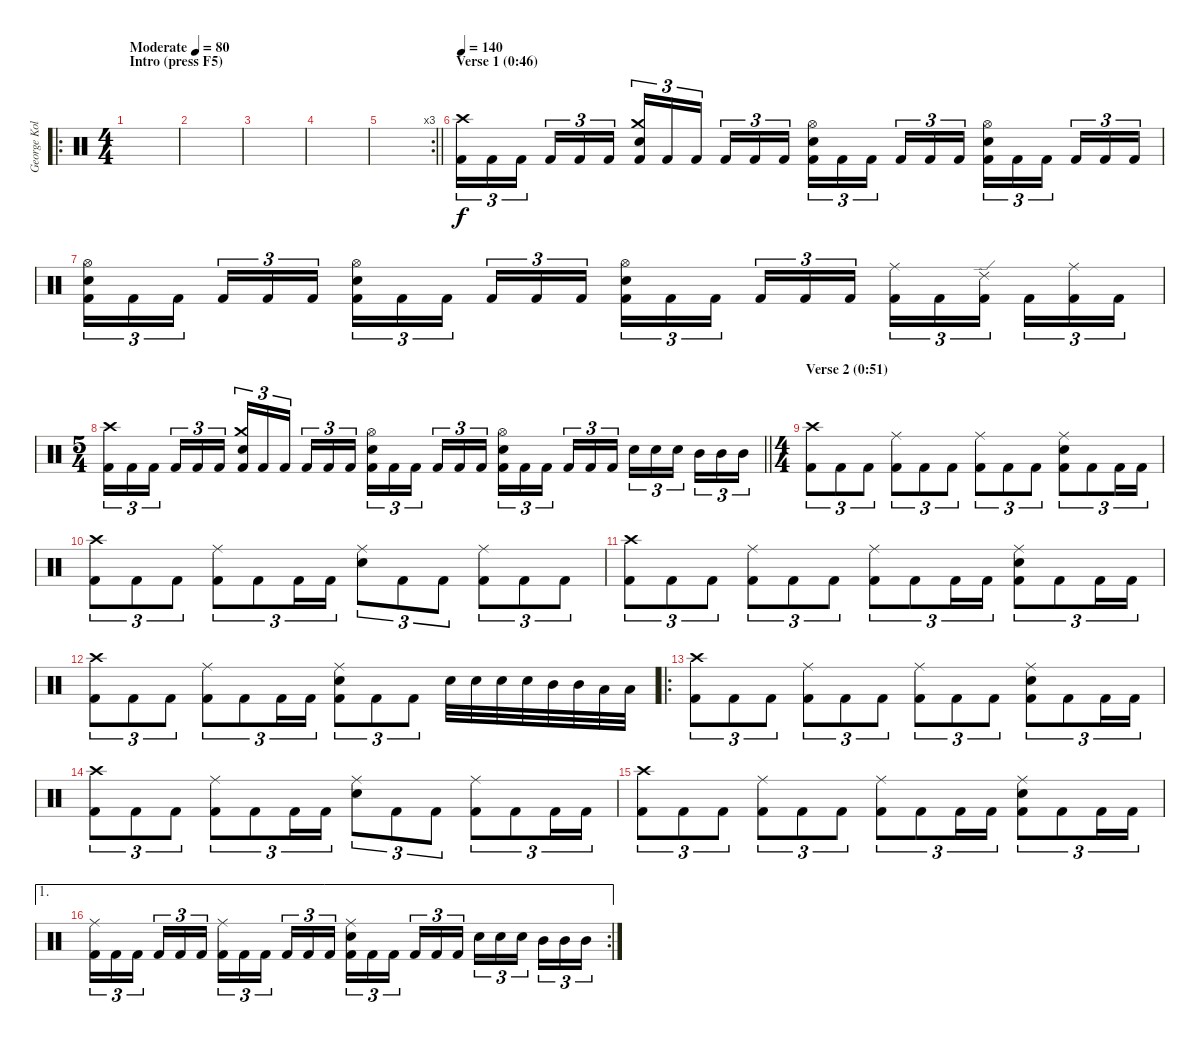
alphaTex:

\track ("George Kollias" "George Kol") {instrument percussion}
\staff {score}
\articulation defaults
\ro
\ts (4 4)
\section ("" "Intro (press F5)")
\tempo (80 "Moderate")
\clef neutral
\ks c
|
|
|
|
\rc 3
\barLineRight lightlight
|
\section ("" "Verse 1 (0:46)")
\tempo 140
("Crash high (hit)" "Kick (hit) 2").16{tu (3 2)} "Kick (hit) 2".16{tu (3 2)} "Kick (hit) 2".16{tu (3 2) beam splitsecondary} "Kick (hit) 2".16{tu (3 2)} "Kick (hit) 2".16{tu (3 2)} "Kick (hit) 2".16{tu (3 2)} ("Crash medium (hit)" "Electric Snare (hit)" "Kick (hit) 2").16{tu (3 2)} "Kick (hit) 2".16{tu (3 2)} "Kick (hit) 2".16{tu (3 2) beam splitsecondary} "Kick (hit) 2".16{tu (3 2)} "Kick (hit) 2".16{tu (3 2)} "Kick (hit) 2".16{tu (3 2)} ("Hi-Hat (open)" "Electric Snare (hit)" "Kick (hit) 2").16{tu (3 2)} "Kick (hit) 2".16{tu (3 2)} "Kick (hit) 2".16{tu (3 2) beam splitsecondary} "Kick (hit) 2".16{tu (3 2)} "Kick (hit) 2".16{tu (3 2)} "Kick (hit) 2".16{tu (3 2)} ("Hi-Hat (open)" "Electric Snare (hit)" "Kick (hit) 2").16{tu (3 2)} "Kick (hit) 2".16{tu (3 2)} "Kick (hit) 2".16{tu (3 2) beam splitsecondary} "Kick (hit) 2".16{tu (3 2)} "Kick (hit) 2".16{tu (3 2)} "Kick (hit) 2".16{tu (3 2)} |
("Hi-Hat (open)" "Electric Snare (hit)" "Kick (hit) 2").16{tu (3 2)} "Kick (hit) 2".16{tu (3 2)} "Kick (hit) 2".16{tu (3 2) beam splitsecondary} "Kick (hit) 2".16{tu (3 2)} "Kick (hit) 2".16{tu (3 2)} "Kick (hit) 2".16{tu (3 2)} ("Hi-Hat (open)" "Electric Snare (hit)" "Kick (hit) 2").16{tu (3 2)} "Kick (hit) 2".16{tu (3 2)} "Kick (hit) 2".16{tu (3 2) beam splitsecondary} "Kick (hit) 2".16{tu (3 2)} "Kick (hit) 2".16{tu (3 2)} "Kick (hit) 2".16{tu (3 2)} ("Hi-Hat (open)" "Electric Snare (hit)" "Kick (hit) 2").16{tu (3 2)} "Kick (hit) 2".16{tu (3 2)} "Kick (hit) 2".16{tu (3 2) beam splitsecondary} "Kick (hit) 2".16{tu (3 2)} "Kick (hit) 2".16{tu (3 2)} "Kick (hit) 2".16{tu (3 2)} ("Ride (middle)" "Kick (hit) 2").16{tu (3 2)} "Kick (hit) 2".16{tu (3 2)} ("Ride (edge) 2" "Kick (hit) 2").16{tu (3 2) beam splitsecondary} "Kick (hit) 2".16{tu (3 2)} ("Ride (middle)" "Kick (hit) 2").16{tu (3 2)} "Kick (hit) 2".16{tu (3 2)} |
\ts (5 4)
\barLineRight lightlight
("Crash high (hit)" "Kick (hit) 2").16{tu (3 2)} "Kick (hit) 2".16{tu (3 2)} "Kick (hit) 2".16{tu (3 2) beam splitsecondary} "Kick (hit) 2".16{tu (3 2)} "Kick (hit) 2".16{tu (3 2)} "Kick (hit) 2".16{tu (3 2)} ("Crash medium (hit)" "Electric Snare (hit)" "Kick (hit) 2").16{tu (3 2)} "Kick (hit) 2".16{tu (3 2)} "Kick (hit) 2".16{tu (3 2) beam splitsecondary} "Kick (hit) 2".16{tu (3 2)} "Kick (hit) 2".16{tu (3 2)} "Kick (hit) 2".16{tu (3 2)} ("Hi-Hat (open)" "Electric Snare (hit)" "Kick (hit) 2").16{tu (3 2)} "Kick (hit) 2".16{tu (3 2)} "Kick (hit) 2".16{tu (3 2) beam splitsecondary} "Kick (hit) 2".16{tu (3 2)} "Kick (hit) 2".16{tu (3 2)} "Kick (hit) 2".16{tu (3 2)} ("Hi-Hat (open)" "Electric Snare (hit)" "Kick (hit) 2").16{tu (3 2)} "Kick (hit) 2".16{tu (3 2)} "Kick (hit) 2".16{tu (3 2) beam splitsecondary} "Kick (hit) 2".16{tu (3 2)} "Kick (hit) 2".16{tu (3 2)} "Kick (hit) 2".16{tu (3 2)} "Electric Snare (hit)".16{tu (3 2)} "Electric Snare (hit)".16{tu (3 2)} "Electric Snare (hit)".16{tu (3 2) beam splitsecondary} "Mid Tom (hit)".16{tu (3 2)} "Mid Tom (hit)".16{tu (3 2)} "Mid Tom (hit)".16{tu (3 2)} |
\ts (4 4)
\section ("" "Verse 2 (0:51)")
("Crash high (hit)" "Kick (hit) 2").8{tu (3 2)} "Kick (hit) 2".8{tu (3 2)} "Kick (hit) 2".8{tu (3 2)} ("Ride (middle)" "Kick (hit) 2").8{tu (3 2)} "Kick (hit) 2".8{tu (3 2)} "Kick (hit) 2".8{tu (3 2)} ("Ride (middle)" "Kick (hit) 2").8{tu (3 2)} "Kick (hit) 2".8{tu (3 2)} "Kick (hit) 2".8{tu (3 2)} ("Ride (middle)" "Electric Snare (hit)" "Kick (hit) 2").8{tu (3 2)} "Kick (hit) 2".8{tu (3 2)} "Kick (hit) 2".16{tu (3 2)} "Kick (hit) 2".16{tu (3 2)} |
("Crash high (hit)" "Kick (hit) 2").8{tu (3 2)} "Kick (hit) 2".8{tu (3 2)} "Kick (hit) 2".8{tu (3 2)} ("Ride (middle)" "Kick (hit) 2").8{tu (3 2)} "Kick (hit) 2".8{tu (3 2)} "Kick (hit) 2".16{tu (3 2)} "Kick (hit) 2".16{tu (3 2)} ("Ride (middle)" "Electric Snare (hit)").8{tu (3 2)} "Kick (hit) 2".8{tu (3 2)} "Kick (hit) 2".8{tu (3 2)} ("Ride (middle)" "Kick (hit) 2").8{tu (3 2)} "Kick (hit) 2".8{tu (3 2)} "Kick (hit) 2".8{tu (3 2)} |
("Crash high (hit)" "Kick (hit) 2").8{tu (3 2)} "Kick (hit) 2".8{tu (3 2)} "Kick (hit) 2".8{tu (3 2)} ("Ride (middle)" "Kick (hit) 2").8{tu (3 2)} "Kick (hit) 2".8{tu (3 2)} "Kick (hit) 2".8{tu (3 2)} ("Ride (middle)" "Kick (hit) 2").8{tu (3 2)} "Kick (hit) 2".8{tu (3 2)} "Kick (hit) 2".16{tu (3 2)} "Kick (hit) 2".16{tu (3 2)} ("Ride (middle)" "Electric Snare (hit)" "Kick (hit) 2").8{tu (3 2)} "Kick (hit) 2".8{tu (3 2)} "Kick (hit) 2".16{tu (3 2)} "Kick (hit) 2".16{tu (3 2)} |
("Crash high (hit)" "Kick (hit) 2").8{tu (3 2)} "Kick (hit) 2".8{tu (3 2)} "Kick (hit) 2".8{tu (3 2)} ("Ride (middle)" "Kick (hit) 2").8{tu (3 2)} "Kick (hit) 2".8{tu (3 2)} "Kick (hit) 2".16{tu (3 2)} "Kick (hit) 2".16{tu (3 2)} ("Ride (middle)" "Electric Snare (hit)" "Kick (hit) 2").8{tu (3 2)} "Kick (hit) 2".8{tu (3 2)} "Kick (hit) 2".8{tu (3 2)} "Electric Snare (hit)".32 "Electric Snare (hit)".32 "Electric Snare (hit)".32 "Electric Snare (hit)".32 "Mid Tom (hit)".32 "Mid Tom (hit)".32 "Low Tom (hit)".32 "Low Tom (hit)".32 |
\ro
("Crash high (hit)" "Kick (hit) 2").8{tu (3 2)} "Kick (hit) 2".8{tu (3 2)} "Kick (hit) 2".8{tu (3 2)} ("Ride (middle)" "Kick (hit) 2").8{tu (3 2)} "Kick (hit) 2".8{tu (3 2)} "Kick (hit) 2".8{tu (3 2)} ("Ride (middle)" "Kick (hit) 2").8{tu (3 2)} "Kick (hit) 2".8{tu (3 2)} "Kick (hit) 2".8{tu (3 2)} ("Ride (middle)" "Electric Snare (hit)" "Kick (hit) 2").8{tu (3 2)} "Kick (hit) 2".8{tu (3 2)} "Kick (hit) 2".16{tu (3 2)} "Kick (hit) 2".16{tu (3 2)} |
("Crash high (hit)" "Kick (hit) 2").8{tu (3 2)} "Kick (hit) 2".8{tu (3 2)} "Kick (hit) 2".8{tu (3 2)} ("Ride (middle)" "Kick (hit) 2").8{tu (3 2)} "Kick (hit) 2".8{tu (3 2)} "Kick (hit) 2".16{tu (3 2)} "Kick (hit) 2".16{tu (3 2)} ("Ride (middle)" "Electric Snare (hit)").8{tu (3 2)} "Kick (hit) 2".8{tu (3 2)} "Kick (hit) 2".8{tu (3 2)} ("Ride (middle)" "Kick (hit) 2").8{tu (3 2)} "Kick (hit) 2".8{tu (3 2)} "Kick (hit) 2".16{tu (3 2)} "Kick (hit) 2".16{tu (3 2)} |
("Crash high (hit)" "Kick (hit) 2").8{tu (3 2)} "Kick (hit) 2".8{tu (3 2)} "Kick (hit) 2".8{tu (3 2)} ("Ride (middle)" "Kick (hit) 2").8{tu (3 2)} "Kick (hit) 2".8{tu (3 2)} "Kick (hit) 2".8{tu (3 2)} ("Ride (middle)" "Kick (hit) 2").8{tu (3 2)} "Kick (hit) 2".8{tu (3 2)} "Kick (hit) 2".16{tu (3 2)} "Kick (hit) 2".16{tu (3 2)} ("Ride (middle)" "Electric Snare (hit)" "Kick (hit) 2").8{tu (3 2)} "Kick (hit) 2".8{tu (3 2)} "Kick (hit) 2".16{tu (3 2)} "Kick (hit) 2".16{tu (3 2)} |
\ae 1
\rc 2
("Ride (middle)" "Kick (hit) 2").16{tu (3 2)} "Kick (hit) 2".16{tu (3 2)} "Kick (hit) 2".16{tu (3 2) beam splitsecondary} "Kick (hit) 2".16{tu (3 2)} "Kick (hit) 2".16{tu (3 2)} "Kick (hit) 2".16{tu (3 2)} ("Ride (middle)" "Kick (hit) 2").16{tu (3 2)} "Kick (hit) 2".16{tu (3 2)} "Kick (hit) 2".16{tu (3 2) beam splitsecondary} "Kick (hit) 2".16{tu (3 2)} "Kick (hit) 2".16{tu (3 2)} "Kick (hit) 2".16{tu (3 2)} ("Ride (middle)" "Electric Snare (hit)" "Kick (hit) 2").16{tu (3 2)} "Kick (hit) 2".16{tu (3 2)} "Kick (hit) 2".16{tu (3 2) beam splitsecondary} "Kick (hit) 2".16{tu (3 2)} "Kick (hit) 2".16{tu (3 2)} "Kick (hit) 2".16{tu (3 2)} "Electric Snare (hit)".16{tu (3 2)} "Electric Snare (hit)".16{tu (3 2)} "Electric Snare (hit)".16{tu (3 2) beam splitsecondary} "Mid Tom (hit)".16{tu (3 2)} "Mid Tom (hit)".16{tu (3 2)} "Mid Tom (hit)".16{tu (3 2)}
